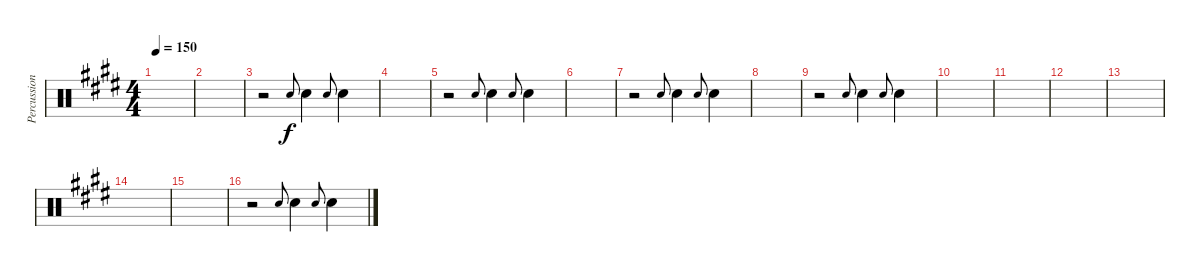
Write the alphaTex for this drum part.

\track ("Percussion" "Percussion") {instrument percussion}
\staff {score}
\articulation defaults
\ts (4 4)
\tempo 150
\clef neutral
\ks e
|
|
r.2 "Hand Clap (hit)".8{gr onbeat} "Hand Clap (hit)".4 "Hand Clap (hit)".8{gr onbeat} "Hand Clap (hit)".4 |
|
r.2 "Hand Clap (hit)".8{gr onbeat} "Hand Clap (hit)".4 "Hand Clap (hit)".8{gr onbeat} "Hand Clap (hit)".4 |
|
r.2 "Hand Clap (hit)".8{gr onbeat} "Hand Clap (hit)".4 "Hand Clap (hit)".8{gr onbeat} "Hand Clap (hit)".4 |
|
r.2 "Hand Clap (hit)".8{gr onbeat} "Hand Clap (hit)".4 "Hand Clap (hit)".8{gr onbeat} "Hand Clap (hit)".4 |
|
|
|
|
|
|
r.2 "Hand Clap (hit)".8{gr onbeat} "Hand Clap (hit)".4 "Hand Clap (hit)".8{gr onbeat} "Hand Clap (hit)".4
